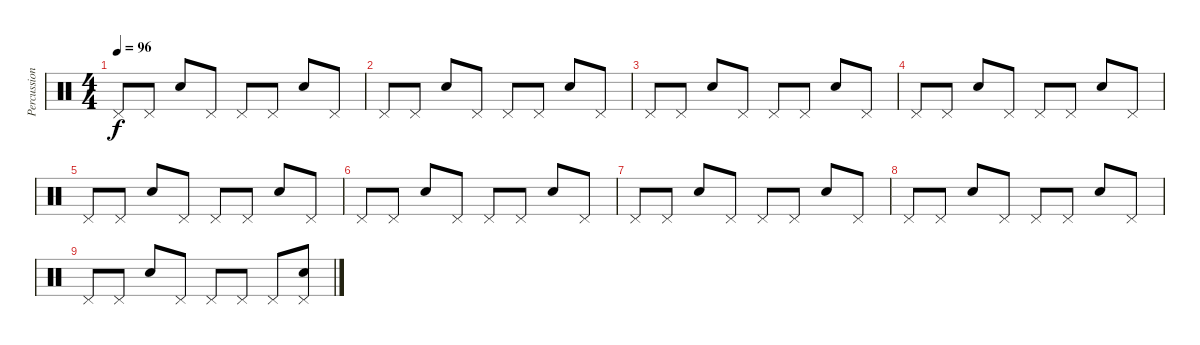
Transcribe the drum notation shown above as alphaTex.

\track ("Percussions" "Percussion") {instrument percussion}
\staff {score}
\articulation defaults
\ts (4 4)
\tempo 96
\clef neutral
\ks c "Pedal Hi-Hat (hit)".8{dy f} "Pedal Hi-Hat (hit)".8 "Snare (hit) 2".8 "Pedal Hi-Hat (hit)".8 "Pedal Hi-Hat (hit)".8 "Pedal Hi-Hat (hit)".8 "Snare (hit) 2".8 "Pedal Hi-Hat (hit)".8
|
"Pedal Hi-Hat (hit)".8 "Pedal Hi-Hat (hit)".8 "Snare (hit) 2".8 "Pedal Hi-Hat (hit)".8 "Pedal Hi-Hat (hit)".8 "Pedal Hi-Hat (hit)".8 "Snare (hit) 2".8 "Pedal Hi-Hat (hit)".8 |
"Pedal Hi-Hat (hit)".8 "Pedal Hi-Hat (hit)".8 "Snare (hit) 2".8 "Pedal Hi-Hat (hit)".8 "Pedal Hi-Hat (hit)".8 "Pedal Hi-Hat (hit)".8 "Snare (hit) 2".8 "Pedal Hi-Hat (hit)".8 |
"Pedal Hi-Hat (hit)".8 "Pedal Hi-Hat (hit)".8 "Snare (hit) 2".8 "Pedal Hi-Hat (hit)".8 "Pedal Hi-Hat (hit)".8 "Pedal Hi-Hat (hit)".8 "Snare (hit) 2".8 "Pedal Hi-Hat (hit)".8 |
"Pedal Hi-Hat (hit)".8 "Pedal Hi-Hat (hit)".8 "Snare (hit) 2".8 "Pedal Hi-Hat (hit)".8 "Pedal Hi-Hat (hit)".8 "Pedal Hi-Hat (hit)".8 "Snare (hit) 2".8 "Pedal Hi-Hat (hit)".8 |
"Pedal Hi-Hat (hit)".8 "Pedal Hi-Hat (hit)".8 "Snare (hit) 2".8 "Pedal Hi-Hat (hit)".8 "Pedal Hi-Hat (hit)".8 "Pedal Hi-Hat (hit)".8 "Snare (hit) 2".8 "Pedal Hi-Hat (hit)".8 |
"Pedal Hi-Hat (hit)".8 "Pedal Hi-Hat (hit)".8 "Snare (hit) 2".8 "Pedal Hi-Hat (hit)".8 "Pedal Hi-Hat (hit)".8 "Pedal Hi-Hat (hit)".8 "Snare (hit) 2".8 "Pedal Hi-Hat (hit)".8 |
"Pedal Hi-Hat (hit)".8 "Pedal Hi-Hat (hit)".8 "Snare (hit) 2".8 "Pedal Hi-Hat (hit)".8 "Pedal Hi-Hat (hit)".8 "Pedal Hi-Hat (hit)".8 "Snare (hit) 2".8 "Pedal Hi-Hat (hit)".8 |
"Pedal Hi-Hat (hit)".8 "Pedal Hi-Hat (hit)".8 "Snare (hit) 2".8 "Pedal Hi-Hat (hit)".8 "Pedal Hi-Hat (hit)".8 "Pedal Hi-Hat (hit)".8 "Pedal Hi-Hat (hit)".8 ("Snare (hit) 2" "Pedal Hi-Hat (hit)").8
